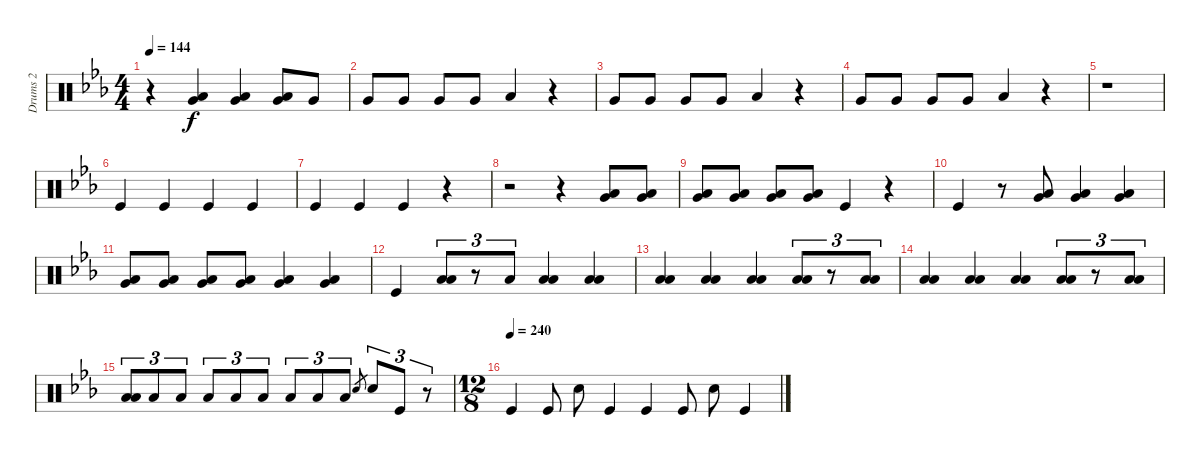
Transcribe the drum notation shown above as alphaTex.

\track ("Drums 2" "Drums 2") {instrument percussion}
\staff {score}
\articulation defaults
\ts (4 4)
\tempo 144
\clef neutral
\ks eb
r.4{dy f} ("Low Floor Tom (hit)" "Very Low Tom (hit)").4 ("Very Low Tom (hit)" "Low Floor Tom (hit)").4 ("Very Low Tom (hit)" "Low Floor Tom (hit)").8 "Very Low Tom (hit)".8 |
"Very Low Tom (hit)".8 "Very Low Tom (hit)".8 "Very Low Tom (hit)".8 "Very Low Tom (hit)".8 "Low Floor Tom (hit)".4 r.4 |
"Very Low Tom (hit)".8 "Very Low Tom (hit)".8 "Very Low Tom (hit)".8 "Very Low Tom (hit)".8 "Low Floor Tom (hit)".4 r.4 |
"Very Low Tom (hit)".8 "Very Low Tom (hit)".8 "Very Low Tom (hit)".8 "Very Low Tom (hit)".8 "Low Floor Tom (hit)".4 r.4 |
r.1 |
"Kick (hit)".4 "Kick (hit)".4 "Kick (hit)".4 "Kick (hit)".4 |
"Kick (hit)".4 "Kick (hit)".4 "Kick (hit)".4 r.4 |
r.2 r.4 ("Very Low Tom (hit)" "Low Tom (hit)").8 ("Very Low Tom (hit)" "Low Tom (hit)").8 |
("Very Low Tom (hit)" "Low Tom (hit)").8 ("Very Low Tom (hit)" "Low Tom (hit)").8 ("Low Tom (hit)" "Very Low Tom (hit)").8 ("Very Low Tom (hit)" "Low Tom (hit)").8 "Kick (hit)".4 r.4 |
"Kick (hit)".4 r.8 ("Very Low Tom (hit)" "Low Floor Tom (hit)").8 ("Very Low Tom (hit)" "Low Floor Tom (hit)").4 ("Very Low Tom (hit)" "Low Floor Tom (hit)").4 |
("Very Low Tom (hit)" "Low Floor Tom (hit)").8 ("Very Low Tom (hit)" "Low Floor Tom (hit)").8 ("Very Low Tom (hit)" "Low Floor Tom (hit)").8 ("Very Low Tom (hit)" "Low Floor Tom (hit)").8 ("Very Low Tom (hit)" "Low Floor Tom (hit)").4 ("Very Low Tom (hit)" "Low Floor Tom (hit)").4 |
"Kick (hit)".4 ("Low Tom (hit)" "Low Floor Tom (hit)").8{tu (3 2)} r.8{tu (3 2)} "Low Floor Tom (hit)".8{tu (3 2)} ("Low Tom (hit)" "Low Floor Tom (hit)").4 ("Low Floor Tom (hit)" "Low Tom (hit)").4 |
("Low Tom (hit)" "Low Floor Tom (hit)").4 ("Low Tom (hit)" "Low Floor Tom (hit)").4 ("Low Tom (hit)" "Low Floor Tom (hit)").4 ("Low Tom (hit)" "Low Floor Tom (hit)").8{tu (3 2)} r.8{tu (3 2)} ("Low Floor Tom (hit)" "Low Tom (hit)").8{tu (3 2)} |
("Low Tom (hit)" "Low Floor Tom (hit)").4 ("Low Tom (hit)" "Low Floor Tom (hit)").4 ("Low Tom (hit)" "Low Floor Tom (hit)").4 ("Low Tom (hit)" "Low Floor Tom (hit)").8{tu (3 2)} r.8{tu (3 2)} ("Low Floor Tom (hit)" "Low Tom (hit)").8{tu (3 2)} |
("Low Tom (hit)" "Low Tom (hit)").8{tu (3 2)} "Low Tom (hit)".8{tu (3 2)} "Low Tom (hit)".8{tu (3 2)} "Low Tom (hit)".8{tu (3 2)} "Low Tom (hit)".8{tu (3 2)} "Low Tom (hit)".8{tu (3 2)} "Low Tom (hit)".8{tu (3 2)} "Low Tom (hit)".8{tu (3 2)} "Low Tom (hit)".8{tu (3 2)} "Snare (hit) 2".8{gr} "Snare (hit) 2".8{tu (3 2)} "Kick (hit)".8{tu (3 2)} r.8{tu (3 2)} |
\ts (12 8)
\tempo (240)
"Kick (hit)".4 "Kick (hit)".8 "Snare (hit) 2".8 "Kick (hit)".4 "Kick (hit)".4 "Kick (hit)".8 "Snare (hit) 2".8 "Kick (hit)".4
